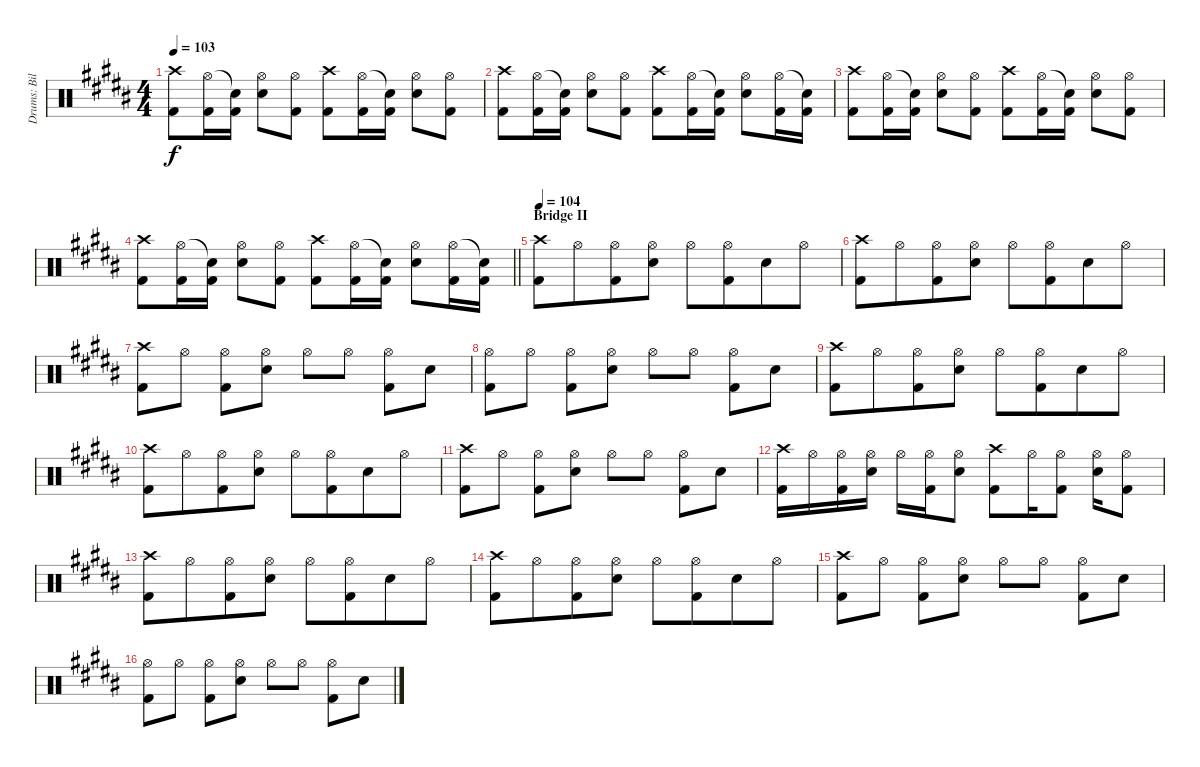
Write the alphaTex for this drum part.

\track ("Drums: Bill" "Drums: Bil") {instrument percussion}
\staff {score}
\articulation defaults
\ts (4 4)
\tempo 103
\clef neutral
\ks b
("Crash high (hit)" "Kick (hit) 2").8{dy f} ("Hi-Hat (open)" "Kick (hit) 2").16 ("Snare (hit)"{t} "Kick (hit) 2").16 ("Hi-Hat (open)" "Electric Snare (hit)").8 ("Hi-Hat (open)" "Kick (hit) 2").8 ("Crash high (hit)" "Kick (hit) 2").8 ("Hi-Hat (open)" "Kick (hit) 2").16 ("Snare (hit)"{t} "Kick (hit) 2").16 ("Hi-Hat (open)" "Electric Snare (hit)").8 ("Hi-Hat (open)" "Kick (hit) 2").8 |
("Crash high (hit)" "Kick (hit) 2").8 ("Hi-Hat (open)" "Kick (hit) 2").16 ("Snare (hit)"{t} "Kick (hit) 2").16 ("Hi-Hat (open)" "Electric Snare (hit)").8 ("Hi-Hat (open)" "Kick (hit) 2").8 ("Crash high (hit)" "Kick (hit) 2").8 ("Hi-Hat (open)" "Kick (hit) 2").16 ("Snare (hit)"{t} "Kick (hit) 2").16 ("Hi-Hat (open)" "Electric Snare (hit)").8 ("Hi-Hat (open)" "Kick (hit) 2").16 ("Snare (hit)"{t} "Kick (hit) 2").16 |
("Crash high (hit)" "Kick (hit) 2").8 ("Hi-Hat (open)" "Kick (hit) 2").16 ("Snare (hit)"{t} "Kick (hit) 2").16 ("Hi-Hat (open)" "Electric Snare (hit)").8 ("Hi-Hat (open)" "Kick (hit) 2").8 ("Crash high (hit)" "Kick (hit) 2").8 ("Hi-Hat (open)" "Kick (hit) 2").16 ("Snare (hit)"{t} "Kick (hit) 2").16 ("Hi-Hat (open)" "Electric Snare (hit)").8 ("Hi-Hat (open)" "Kick (hit) 2").8 |
\barLineRight lightlight
("Crash high (hit)" "Kick (hit) 2").8 ("Hi-Hat (open)" "Kick (hit) 2").16 ("Snare (hit)"{t} "Kick (hit) 2").16 ("Hi-Hat (open)" "Electric Snare (hit)").8 ("Hi-Hat (open)" "Kick (hit) 2").8 ("Crash high (hit)" "Kick (hit) 2").8 ("Hi-Hat (open)" "Kick (hit) 2").16 ("Snare (hit)"{t} "Kick (hit) 2").16 ("Hi-Hat (open)" "Electric Snare (hit)").8 ("Hi-Hat (open)" "Kick (hit) 2").16 ("Snare (hit)"{t} "Kick (hit) 2").16 |
\section ("" "Bridge II")
\tempo 104
("Crash high (hit)" "Kick (hit) 2").8 "Hi-Hat (open)".8{beam merge} ("Hi-Hat (open)" "Kick (hit) 2").8 ("Hi-Hat (open)" "Electric Snare (hit)").8 "Hi-Hat (open)".8 ("Hi-Hat (open)" "Kick (hit) 2").8{beam merge} "Electric Snare (hit)".8 "Hi-Hat (open)".8 |
("Crash high (hit)" "Kick (hit) 2").8 "Hi-Hat (open)".8{beam merge} ("Hi-Hat (open)" "Kick (hit) 2").8 ("Hi-Hat (open)" "Electric Snare (hit)").8 "Hi-Hat (open)".8 ("Hi-Hat (open)" "Kick (hit) 2").8{beam merge} "Electric Snare (hit)".8 "Hi-Hat (open)".8 |
("Crash high (hit)" "Kick (hit) 2").8 "Hi-Hat (open)".8 ("Hi-Hat (open)" "Kick (hit) 2").8 ("Hi-Hat (open)" "Electric Snare (hit)").8 "Hi-Hat (open)".8 "Hi-Hat (open)".8 ("Hi-Hat (open)" "Kick (hit) 2").8 "Electric Snare (hit)".8 |
("Hi-Hat (open)" "Kick (hit) 2").8 "Hi-Hat (open)".8 ("Hi-Hat (open)" "Kick (hit) 2").8 ("Hi-Hat (open)" "Electric Snare (hit)").8 "Hi-Hat (open)".8 "Hi-Hat (open)".8 ("Hi-Hat (open)" "Kick (hit) 2").8 "Electric Snare (hit)".8 |
("Crash high (hit)" "Kick (hit) 2").8 "Hi-Hat (open)".8{beam merge} ("Hi-Hat (open)" "Kick (hit) 2").8 ("Hi-Hat (open)" "Electric Snare (hit)").8 "Hi-Hat (open)".8 ("Hi-Hat (open)" "Kick (hit) 2").8{beam merge} "Electric Snare (hit)".8 "Hi-Hat (open)".8 |
("Crash high (hit)" "Kick (hit) 2").8 "Hi-Hat (open)".8{beam merge} ("Hi-Hat (open)" "Kick (hit) 2").8 ("Hi-Hat (open)" "Electric Snare (hit)").8 "Hi-Hat (open)".8 ("Hi-Hat (open)" "Kick (hit) 2").8{beam merge} "Electric Snare (hit)".8 "Hi-Hat (open)".8 |
("Crash high (hit)" "Kick (hit) 2").8 "Hi-Hat (open)".8 ("Hi-Hat (open)" "Kick (hit) 2").8 ("Hi-Hat (open)" "Electric Snare (hit)").8 "Hi-Hat (open)".8 "Hi-Hat (open)".8 ("Hi-Hat (open)" "Kick (hit) 2").8 "Electric Snare (hit)".8 |
("Crash high (hit)" "Kick (hit) 2").16 "Hi-Hat (open)".16 ("Hi-Hat (open)" "Kick (hit) 2").16 ("Hi-Hat (open)" "Electric Snare (hit)").16 "Hi-Hat (open)".16 ("Hi-Hat (open)" "Kick (hit) 2").16 ("Hi-Hat (open)" "Electric Snare (hit)").8 ("Crash high (hit)" "Kick (hit) 2").8 "Hi-Hat (open)".16 ("Hi-Hat (open)" "Kick (hit) 2").8 ("Hi-Hat (open)" "Electric Snare (hit)").16 ("Hi-Hat (open)" "Kick (hit) 2").8 |
("Crash high (hit)" "Kick (hit) 2").8 "Hi-Hat (open)".8{beam merge} ("Hi-Hat (open)" "Kick (hit) 2").8 ("Hi-Hat (open)" "Electric Snare (hit)").8 "Hi-Hat (open)".8 ("Hi-Hat (open)" "Kick (hit) 2").8{beam merge} "Electric Snare (hit)".8 "Hi-Hat (open)".8 |
("Crash high (hit)" "Kick (hit) 2").8 "Hi-Hat (open)".8{beam merge} ("Hi-Hat (open)" "Kick (hit) 2").8 ("Hi-Hat (open)" "Electric Snare (hit)").8 "Hi-Hat (open)".8 ("Hi-Hat (open)" "Kick (hit) 2").8{beam merge} "Electric Snare (hit)".8 "Hi-Hat (open)".8 |
("Crash high (hit)" "Kick (hit) 2").8 "Hi-Hat (open)".8 ("Hi-Hat (open)" "Kick (hit) 2").8 ("Hi-Hat (open)" "Electric Snare (hit)").8 "Hi-Hat (open)".8 "Hi-Hat (open)".8 ("Hi-Hat (open)" "Kick (hit) 2").8 "Electric Snare (hit)".8 |
("Hi-Hat (open)" "Kick (hit) 2").8 "Hi-Hat (open)".8 ("Hi-Hat (open)" "Kick (hit) 2").8 ("Hi-Hat (open)" "Electric Snare (hit)").8 "Hi-Hat (open)".8 "Hi-Hat (open)".8 ("Hi-Hat (open)" "Kick (hit) 2").8 "Electric Snare (hit)".8
